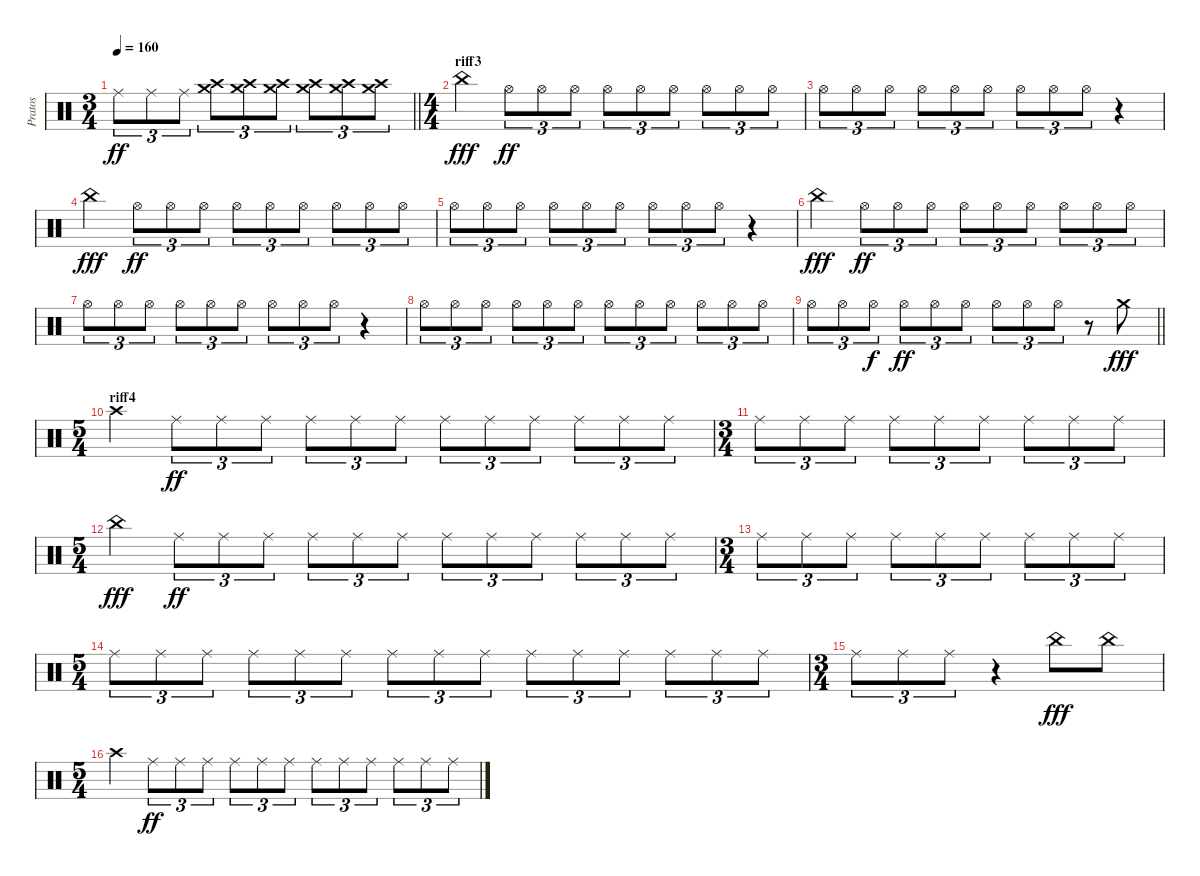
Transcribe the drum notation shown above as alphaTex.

\track ("Pratos" "Pratos") {instrument percussion}
\staff {score}
\articulation defaults
\ts (3 4)
\tempo 160
\clef neutral
\barLineRight lightlight
\ks c "Ride (middle)".8{tu (3 2) dy ff} "Ride (middle)".8{tu (3 2)} "Ride (middle)".8{tu (3 2)}
("Crash medium (hit)" "Crash high (hit)").8{tu (3 2)} ("Crash medium (hit)" "Crash high (hit)").8{tu (3 2)} ("Crash medium (hit)" "Crash high (hit)").8{tu (3 2)} ("Crash medium (hit)" "Crash high (hit)").8{tu (3 2)} ("Crash medium (hit)" "Crash high (hit)").8{tu (3 2)} ("Crash medium (hit)" "Crash high (hit)").8{tu (3 2)} |
\ts (4 4)
\section ("" "riff3")
"China (hit)".4{dy fff} "Hi-Hat (open)".8{tu (3 2) dy ff} "Hi-Hat (open)".8{tu (3 2)} "Hi-Hat (open)".8{tu (3 2)} "Hi-Hat (open)".8{tu (3 2)} "Hi-Hat (open)".8{tu (3 2)} "Hi-Hat (open)".8{tu (3 2)} "Hi-Hat (open)".8{tu (3 2)} "Hi-Hat (open)".8{tu (3 2)} "Hi-Hat (open)".8{tu (3 2)} |
"Hi-Hat (open)".8{tu (3 2)} "Hi-Hat (open)".8{tu (3 2)} "Hi-Hat (open)".8{tu (3 2)} "Hi-Hat (open)".8{tu (3 2)} "Hi-Hat (open)".8{tu (3 2)} "Hi-Hat (open)".8{tu (3 2)} "Hi-Hat (open)".8{tu (3 2)} "Hi-Hat (open)".8{tu (3 2)} "Hi-Hat (open)".8{tu (3 2)} r.4 |
"China (hit)".4{dy fff} "Hi-Hat (open)".8{tu (3 2) dy ff} "Hi-Hat (open)".8{tu (3 2)} "Hi-Hat (open)".8{tu (3 2)} "Hi-Hat (open)".8{tu (3 2)} "Hi-Hat (open)".8{tu (3 2)} "Hi-Hat (open)".8{tu (3 2)} "Hi-Hat (open)".8{tu (3 2)} "Hi-Hat (open)".8{tu (3 2)} "Hi-Hat (open)".8{tu (3 2)} |
"Hi-Hat (open)".8{tu (3 2)} "Hi-Hat (open)".8{tu (3 2)} "Hi-Hat (open)".8{tu (3 2)} "Hi-Hat (open)".8{tu (3 2)} "Hi-Hat (open)".8{tu (3 2)} "Hi-Hat (open)".8{tu (3 2)} "Hi-Hat (open)".8{tu (3 2)} "Hi-Hat (open)".8{tu (3 2)} "Hi-Hat (open)".8{tu (3 2)} r.4 |
"China (hit)".4{dy fff} "Hi-Hat (open)".8{tu (3 2) dy ff} "Hi-Hat (open)".8{tu (3 2)} "Hi-Hat (open)".8{tu (3 2)} "Hi-Hat (open)".8{tu (3 2)} "Hi-Hat (open)".8{tu (3 2)} "Hi-Hat (open)".8{tu (3 2)} "Hi-Hat (open)".8{tu (3 2)} "Hi-Hat (open)".8{tu (3 2)} "Hi-Hat (open)".8{tu (3 2)} |
"Hi-Hat (open)".8{tu (3 2)} "Hi-Hat (open)".8{tu (3 2)} "Hi-Hat (open)".8{tu (3 2)} "Hi-Hat (open)".8{tu (3 2)} "Hi-Hat (open)".8{tu (3 2)} "Hi-Hat (open)".8{tu (3 2)} "Hi-Hat (open)".8{tu (3 2)} "Hi-Hat (open)".8{tu (3 2)} "Hi-Hat (open)".8{tu (3 2)} r.4 |
"Hi-Hat (open)".8{tu (3 2)} "Hi-Hat (open)".8{tu (3 2)} "Hi-Hat (open)".8{tu (3 2)} "Hi-Hat (open)".8{tu (3 2)} "Hi-Hat (open)".8{tu (3 2)} "Hi-Hat (open)".8{tu (3 2)} "Hi-Hat (open)".8{tu (3 2)} "Hi-Hat (open)".8{tu (3 2)} "Hi-Hat (open)".8{tu (3 2)} "Hi-Hat (open)".8{tu (3 2)} "Hi-Hat (open)".8{tu (3 2)} "Hi-Hat (open)".8{tu (3 2)} |
\barLineRight lightlight "Hi-Hat (open)".8{tu (3 2)} "Hi-Hat (open)".8{tu (3 2)} "Hi-Hat (open)".8{tu (3 2) dy f} "Hi-Hat (open)".8{tu (3 2) dy ff} "Hi-Hat (open)".8{tu (3 2)} "Hi-Hat (open)".8{tu (3 2)} "Hi-Hat (open)".8{tu (3 2)} "Hi-Hat (open)".8{tu (3 2)} "Hi-Hat (open)".8{tu (3 2)}
r.8 "Crash medium (hit)".8{dy fff} |
\ts (5 4)
\section ("" "riff4")
"Crash high (hit)".4 "Ride (middle)".8{tu (3 2) dy ff} "Ride (middle)".8{tu (3 2)} "Ride (middle)".8{tu (3 2)} "Ride (middle)".8{tu (3 2)} "Ride (middle)".8{tu (3 2)} "Ride (middle)".8{tu (3 2)} "Ride (middle)".8{tu (3 2)} "Ride (middle)".8{tu (3 2)} "Ride (middle)".8{tu (3 2)} "Ride (middle)".8{tu (3 2)} "Ride (middle)".8{tu (3 2)} "Ride (middle)".8{tu (3 2)} |
\ts (3 4)
"Ride (middle)".8{tu (3 2)} "Ride (middle)".8{tu (3 2)} "Ride (middle)".8{tu (3 2)} "Ride (middle)".8{tu (3 2)} "Ride (middle)".8{tu (3 2)} "Ride (middle)".8{tu (3 2)} "Ride (middle)".8{tu (3 2)} "Ride (middle)".8{tu (3 2)} "Ride (middle)".8{tu (3 2)} |
\ts (5 4)
"China (hit)".4{dy fff} "Ride (middle)".8{tu (3 2) dy ff} "Ride (middle)".8{tu (3 2)} "Ride (middle)".8{tu (3 2)} "Ride (middle)".8{tu (3 2)} "Ride (middle)".8{tu (3 2)} "Ride (middle)".8{tu (3 2)} "Ride (middle)".8{tu (3 2)} "Ride (middle)".8{tu (3 2)} "Ride (middle)".8{tu (3 2)} "Ride (middle)".8{tu (3 2)} "Ride (middle)".8{tu (3 2)} "Ride (middle)".8{tu (3 2)} |
\ts (3 4)
"Ride (middle)".8{tu (3 2)} "Ride (middle)".8{tu (3 2)} "Ride (middle)".8{tu (3 2)} "Ride (middle)".8{tu (3 2)} "Ride (middle)".8{tu (3 2)} "Ride (middle)".8{tu (3 2)} "Ride (middle)".8{tu (3 2)} "Ride (middle)".8{tu (3 2)} "Ride (middle)".8{tu (3 2)} |
\ts (5 4)
"Ride (middle)".8{tu (3 2)} "Ride (middle)".8{tu (3 2)} "Ride (middle)".8{tu (3 2)} "Ride (middle)".8{tu (3 2)} "Ride (middle)".8{tu (3 2)} "Ride (middle)".8{tu (3 2)} "Ride (middle)".8{tu (3 2)} "Ride (middle)".8{tu (3 2)} "Ride (middle)".8{tu (3 2)} "Ride (middle)".8{tu (3 2)} "Ride (middle)".8{tu (3 2)} "Ride (middle)".8{tu (3 2)} "Ride (middle)".8{tu (3 2)} "Ride (middle)".8{tu (3 2)} "Ride (middle)".8{tu (3 2)} |
\ts (3 4)
"Ride (middle)".8{tu (3 2)} "Ride (middle)".8{tu (3 2)} "Ride (middle)".8{tu (3 2)} r.4 "China (hit)".8{dy fff} "China (hit)".8 |
\ts (5 4)
"Crash high (hit)".4 "Ride (middle)".8{tu (3 2) dy ff} "Ride (middle)".8{tu (3 2)} "Ride (middle)".8{tu (3 2)} "Ride (middle)".8{tu (3 2)} "Ride (middle)".8{tu (3 2)} "Ride (middle)".8{tu (3 2)} "Ride (middle)".8{tu (3 2)} "Ride (middle)".8{tu (3 2)} "Ride (middle)".8{tu (3 2)} "Ride (middle)".8{tu (3 2)} "Ride (middle)".8{tu (3 2)} "Ride (middle)".8{tu (3 2)}
